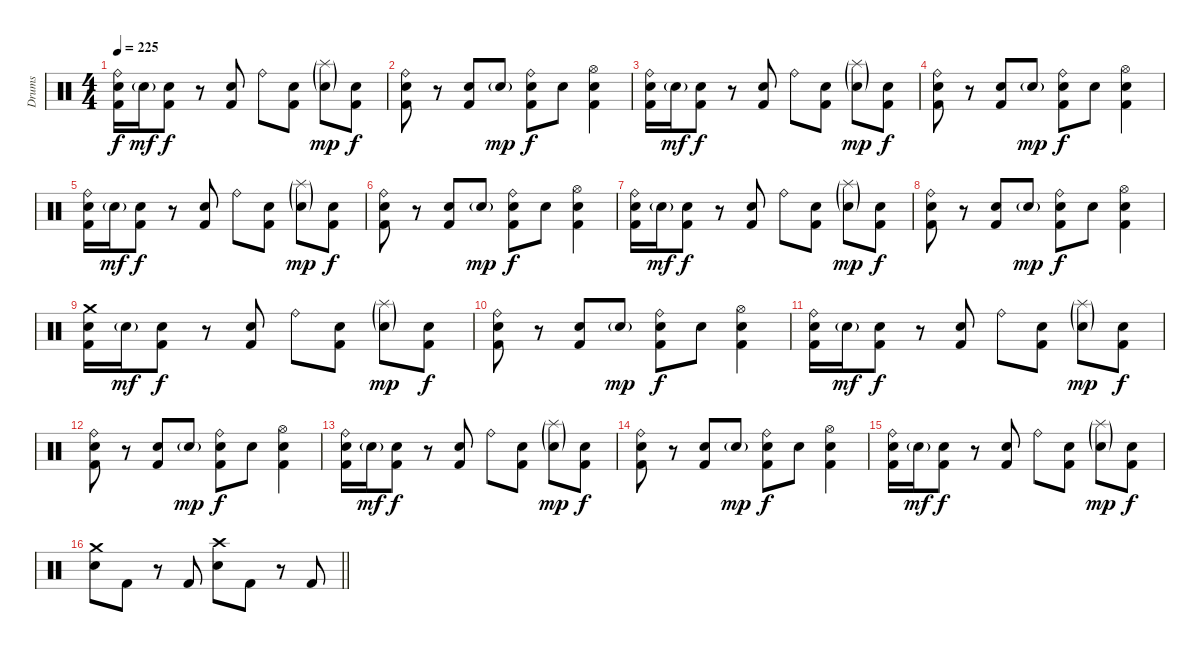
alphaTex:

\track ("Drums" "Drums") {instrument percussion}
\staff {score}
\articulation defaults
\ts (4 4)
\tempo 225
\clef neutral
\ks c
("Ride (bell)" "Electric Snare (hit)" "Kick (hit) 2").16{dy f} "Electric Snare (hit)"{g}.16{dy mf} ("Electric Snare (hit)" "Kick (hit) 2").8{dy f} r.8 ("Electric Snare (hit)" "Kick (hit) 2").8 "Ride (bell)".8 ("Electric Snare (hit)" "Kick (hit) 2").8 ("Splash (hit)"{g} "Electric Snare (hit)"{g}).8{dy mp} ("Electric Snare (hit)" "Kick (hit) 2").8{dy f} |
("Ride (bell)" "Electric Snare (hit)" "Kick (hit) 2").8 r.8 ("Electric Snare (hit)" "Kick (hit) 2").8 "Electric Snare (hit)"{g}.8{dy mp} ("Ride (bell)" "Electric Snare (hit)" "Kick (hit) 2").8{dy f} "Electric Snare (hit)".8 ("Hi-Hat (open)" "Electric Snare (hit)" "Kick (hit) 2").4 |
("Ride (bell)" "Electric Snare (hit)" "Kick (hit) 2").16 "Electric Snare (hit)"{g}.16{dy mf} ("Electric Snare (hit)" "Kick (hit) 2").8{dy f} r.8 ("Electric Snare (hit)" "Kick (hit) 2").8 "Ride (bell)".8 ("Electric Snare (hit)" "Kick (hit) 2").8 ("Splash (hit)"{g} "Electric Snare (hit)"{g}).8{dy mp} ("Electric Snare (hit)" "Kick (hit) 2").8{dy f} |
("Ride (bell)" "Electric Snare (hit)" "Kick (hit) 2").8 r.8 ("Electric Snare (hit)" "Kick (hit) 2").8 "Electric Snare (hit)"{g}.8{dy mp} ("Ride (bell)" "Electric Snare (hit)" "Kick (hit) 2").8{dy f} "Electric Snare (hit)".8 ("Hi-Hat (open)" "Electric Snare (hit)" "Kick (hit) 2").4 |
("Ride (bell)" "Electric Snare (hit)" "Kick (hit) 2").16 "Electric Snare (hit)"{g}.16{dy mf} ("Electric Snare (hit)" "Kick (hit) 2").8{dy f} r.8 ("Electric Snare (hit)" "Kick (hit) 2").8 "Ride (bell)".8 ("Electric Snare (hit)" "Kick (hit) 2").8 ("Splash (hit)"{g} "Electric Snare (hit)"{g}).8{dy mp} ("Electric Snare (hit)" "Kick (hit) 2").8{dy f} |
("Ride (bell)" "Electric Snare (hit)" "Kick (hit) 2").8 r.8 ("Electric Snare (hit)" "Kick (hit) 2").8 "Electric Snare (hit)"{g}.8{dy mp} ("Ride (bell)" "Electric Snare (hit)" "Kick (hit) 2").8{dy f} "Electric Snare (hit)".8 ("Hi-Hat (open)" "Electric Snare (hit)" "Kick (hit) 2").4 |
("Ride (bell)" "Electric Snare (hit)" "Kick (hit) 2").16 "Electric Snare (hit)"{g}.16{dy mf} ("Electric Snare (hit)" "Kick (hit) 2").8{dy f} r.8 ("Electric Snare (hit)" "Kick (hit) 2").8 "Ride (bell)".8 ("Electric Snare (hit)" "Kick (hit) 2").8 ("Splash (hit)"{g} "Electric Snare (hit)"{g}).8{dy mp} ("Electric Snare (hit)" "Kick (hit) 2").8{dy f} |
("Ride (bell)" "Electric Snare (hit)" "Kick (hit) 2").8 r.8 ("Electric Snare (hit)" "Kick (hit) 2").8 "Electric Snare (hit)"{g}.8{dy mp} ("Ride (bell)" "Electric Snare (hit)" "Kick (hit) 2").8{dy f} "Electric Snare (hit)".8 ("Hi-Hat (open)" "Electric Snare (hit)" "Kick (hit) 2").4 |
("Crash medium (hit)" "Electric Snare (hit)" "Kick (hit) 2").16 "Electric Snare (hit)"{g}.16{dy mf} ("Electric Snare (hit)" "Kick (hit) 2").8{dy f} r.8 ("Electric Snare (hit)" "Kick (hit) 2").8 "Ride (bell)".8 ("Electric Snare (hit)" "Kick (hit) 2").8 ("Splash (hit)"{g} "Electric Snare (hit)"{g}).8{dy mp} ("Electric Snare (hit)" "Kick (hit) 2").8{dy f} |
("Ride (bell)" "Electric Snare (hit)" "Kick (hit) 2").8 r.8 ("Electric Snare (hit)" "Kick (hit) 2").8 "Electric Snare (hit)"{g}.8{dy mp} ("Ride (bell)" "Electric Snare (hit)" "Kick (hit) 2").8{dy f} "Electric Snare (hit)".8 ("Hi-Hat (open)" "Electric Snare (hit)" "Kick (hit) 2").4 |
("Ride (bell)" "Electric Snare (hit)" "Kick (hit) 2").16 "Electric Snare (hit)"{g}.16{dy mf} ("Electric Snare (hit)" "Kick (hit) 2").8{dy f} r.8 ("Electric Snare (hit)" "Kick (hit) 2").8 "Ride (bell)".8 ("Electric Snare (hit)" "Kick (hit) 2").8 ("Splash (hit)"{g} "Electric Snare (hit)"{g}).8{dy mp} ("Electric Snare (hit)" "Kick (hit) 2").8{dy f} |
("Ride (bell)" "Electric Snare (hit)" "Kick (hit) 2").8 r.8 ("Electric Snare (hit)" "Kick (hit) 2").8 "Electric Snare (hit)"{g}.8{dy mp} ("Ride (bell)" "Electric Snare (hit)" "Kick (hit) 2").8{dy f} "Electric Snare (hit)".8 ("Hi-Hat (open)" "Electric Snare (hit)" "Kick (hit) 2").4 |
("Ride (bell)" "Electric Snare (hit)" "Kick (hit) 2").16 "Electric Snare (hit)"{g}.16{dy mf} ("Electric Snare (hit)" "Kick (hit) 2").8{dy f} r.8 ("Electric Snare (hit)" "Kick (hit) 2").8 "Ride (bell)".8 ("Electric Snare (hit)" "Kick (hit) 2").8 ("Splash (hit)"{g} "Electric Snare (hit)"{g}).8{dy mp} ("Electric Snare (hit)" "Kick (hit) 2").8{dy f} |
("Ride (bell)" "Electric Snare (hit)" "Kick (hit) 2").8 r.8 ("Electric Snare (hit)" "Kick (hit) 2").8 "Electric Snare (hit)"{g}.8{dy mp} ("Ride (bell)" "Electric Snare (hit)" "Kick (hit) 2").8{dy f} "Electric Snare (hit)".8 ("Hi-Hat (open)" "Electric Snare (hit)" "Kick (hit) 2").4 |
("Ride (bell)" "Electric Snare (hit)" "Kick (hit) 2").16 "Electric Snare (hit)"{g}.16{dy mf} ("Electric Snare (hit)" "Kick (hit) 2").8{dy f} r.8 ("Electric Snare (hit)" "Kick (hit) 2").8 "Ride (bell)".8 ("Electric Snare (hit)" "Kick (hit) 2").8 ("Splash (hit)"{g} "Electric Snare (hit)"{g}).8{dy mp} ("Electric Snare (hit)" "Kick (hit) 2").8{dy f} |
\barLineRight lightlight
("Crash medium (hit)" "Electric Snare (hit)").8 "Kick (hit) 2".8 r.8 "Kick (hit) 2".8 ("Crash high (hit)" "Electric Snare (hit)").8 "Kick (hit) 2".8 r.8 "Kick (hit) 2".8
